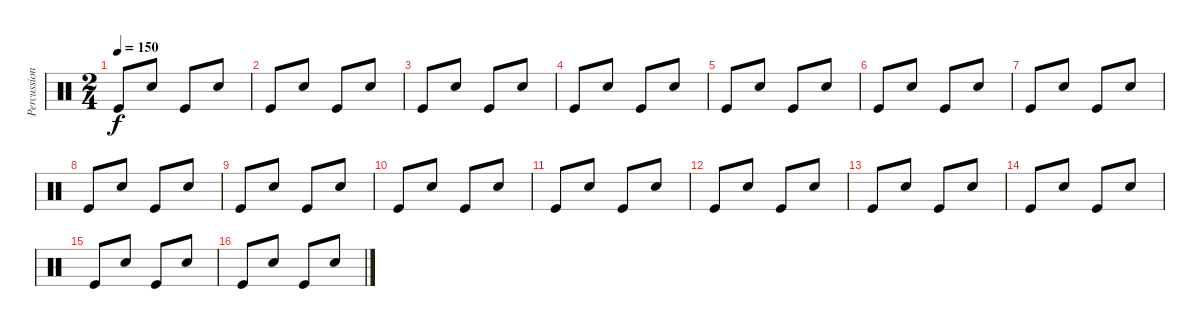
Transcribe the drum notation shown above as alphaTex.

\track ("Percussions" "Percussion") {instrument percussion}
\staff {score}
\articulation defaults
\ts (2 4)
\tempo 150
\clef neutral
\ks c "Kick (hit)".8{dy f} "Snare (hit) 2".8 "Kick (hit)".8 "Snare (hit) 2".8
|
"Kick (hit)".8 "Snare (hit) 2".8 "Kick (hit)".8 "Snare (hit) 2".8 |
"Kick (hit)".8 "Snare (hit) 2".8 "Kick (hit)".8 "Snare (hit) 2".8 |
"Kick (hit)".8 "Snare (hit) 2".8 "Kick (hit)".8 "Snare (hit) 2".8 |
"Kick (hit)".8 "Snare (hit) 2".8 "Kick (hit)".8 "Snare (hit) 2".8 |
"Kick (hit)".8 "Snare (hit) 2".8 "Kick (hit)".8 "Snare (hit) 2".8 |
"Kick (hit)".8 "Snare (hit) 2".8 "Kick (hit)".8 "Snare (hit) 2".8 |
"Kick (hit)".8 "Snare (hit) 2".8 "Kick (hit)".8 "Snare (hit) 2".8 |
"Kick (hit)".8 "Snare (hit) 2".8 "Kick (hit)".8 "Snare (hit) 2".8 |
"Kick (hit)".8 "Snare (hit) 2".8 "Kick (hit)".8 "Snare (hit) 2".8 |
"Kick (hit)".8 "Snare (hit) 2".8 "Kick (hit)".8 "Snare (hit) 2".8 |
"Kick (hit)".8 "Snare (hit) 2".8 "Kick (hit)".8 "Snare (hit) 2".8 |
"Kick (hit)".8 "Snare (hit) 2".8 "Kick (hit)".8 "Snare (hit) 2".8 |
"Kick (hit)".8 "Snare (hit) 2".8 "Kick (hit)".8 "Snare (hit) 2".8 |
"Kick (hit)".8 "Snare (hit) 2".8 "Kick (hit)".8 "Snare (hit) 2".8 |
"Kick (hit)".8 "Snare (hit) 2".8 "Kick (hit)".8 "Snare (hit) 2".8
